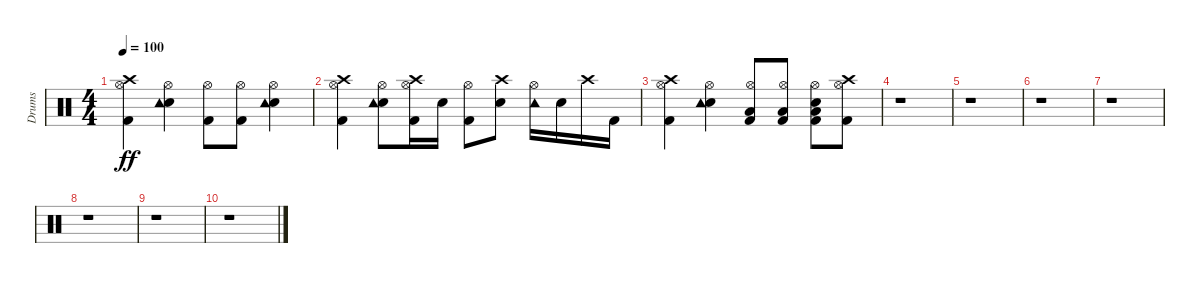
\track ("Drums" "Drums") {instrument percussion}
\staff {score}
\articulation defaults
\ts (4 4)
\tempo 100
\clef neutral
\ks c
("Kick (hit) 2" "Hi-Hat (open)" "Crash high (hit)").4{dy ff} ("Snare (hit) 2" "Hi-Hat (open)" "Tambourine (hit)").4 ("Kick (hit) 2" "Hi-Hat (open)").8 ("Kick (hit) 2" "Hi-Hat (open)").8 ("Snare (hit) 2" "Hi-Hat (open)" "Tambourine (hit)").4 |
("Kick (hit) 2" "Hi-Hat (open)" "Crash high (hit)").4 ("Snare (hit) 2" "Hi-Hat (open)" "Tambourine (hit)").8 ("Kick (hit) 2" "Hi-Hat (open)" "Crash high (hit)").16 "Snare (hit) 2".16 ("Kick (hit) 2" "Hi-Hat (open)").8 ("Snare (hit) 2" "Crash high (hit)").8 ("Hi-Hat (open)" "Tambourine (hit)").16 "Snare (hit) 2".16 "Crash high (hit)".16 "Kick (hit) 2".16 |
("Kick (hit) 2" "Hi-Hat (open)" "Crash high (hit)").4 ("Snare (hit) 2" "Hi-Hat (open)" "Tambourine (hit)").4 ("Kick (hit) 2" "Low Floor Tom (hit)" "Hi-Hat (open)").8 ("Kick (hit) 2" "Low Floor Tom (hit)" "Hi-Hat (open)").8 ("Kick (hit) 2" "Snare (hit) 2" "Low Floor Tom (hit)" "Hi-Hat (open)").8 ("Kick (hit) 2" "Hi-Hat (open)" "Crash high (hit)").8 |
r.1 |
r.1 |
r.1 |
r.1 |
r.1 |
r.1 |
r.1
